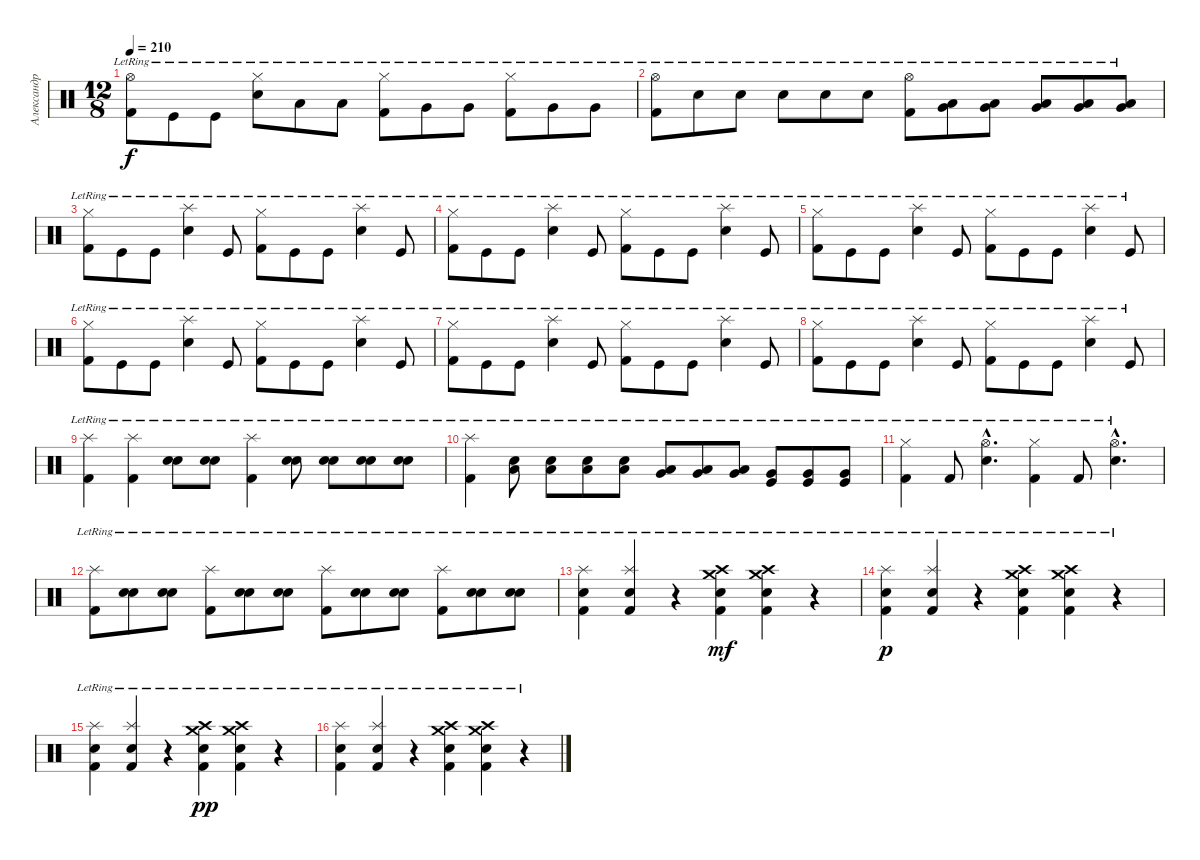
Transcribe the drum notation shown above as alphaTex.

\track ("Александр Манякин" "Александр ") {instrument percussion}
\staff {score}
\articulation defaults
\ts (12 8)
\tempo 210
\clef neutral
\ks c
("Hi-Hat (open)"{lr} "Kick (hit) 2"{lr}).8{dy f} "Kick (hit)"{lr}.8 "Kick (hit)"{lr}.8 ("Hi-Hat (closed)"{lr} "Snare (hit) 2"{lr}).8 "Low Floor Tom (hit)"{lr}.8 "Low Floor Tom (hit)"{lr}.8 ("Hi-Hat (closed)"{lr} "Kick (hit) 2"{lr}).8 "Very Low Tom (hit)"{lr}.8 "Very Low Tom (hit)"{lr}.8 ("Hi-Hat (closed)"{lr} "Kick (hit) 2"{lr}).8 "Very Low Tom (hit)"{lr}.8 "Very Low Tom (hit)"{lr}.8 |
("Hi-Hat (open)"{lr} "Kick (hit) 2"{lr}).8 "Snare (hit) 2"{lr}.8 "Snare (hit) 2"{lr}.8 "Snare (hit) 2"{lr}.8 "Snare (hit) 2"{lr}.8 "Snare (hit) 2"{lr}.8 ("Hi-Hat (open)"{lr} "Kick (hit) 2"{lr}).8 ("Low Tom (hit)"{lr} "Very Low Tom (hit)"{lr}).8 ("Low Tom (hit)"{lr} "Very Low Tom (hit)"{lr}).8 ("Low Tom (hit)"{lr} "Very Low Tom (hit)"{lr}).8 ("Low Tom (hit)"{lr} "Very Low Tom (hit)"{lr}).8 ("Low Floor Tom (hit)"{lr} "Very Low Tom (hit)"{lr}).8 |
("Hi-Hat (closed)"{lr} "Kick (hit) 2"{lr}).8 "Kick (hit)"{lr}.8 "Kick (hit)"{lr}.8 ("Splash (hit)"{lr} "Snare (hit) 2"{lr}).4 "Kick (hit)"{lr}.8 ("Hi-Hat (closed)"{lr} "Kick (hit) 2"{lr}).8 "Kick (hit)"{lr}.8 "Kick (hit)"{lr}.8 ("Splash (hit)"{lr} "Snare (hit) 2"{lr}).4 "Kick (hit)"{lr}.8 |
("Hi-Hat (closed)"{lr} "Kick (hit) 2"{lr}).8 "Kick (hit)"{lr}.8 "Kick (hit)"{lr}.8 ("Splash (hit)"{lr} "Snare (hit) 2"{lr}).4 "Kick (hit)"{lr}.8 ("Hi-Hat (closed)"{lr} "Kick (hit) 2"{lr}).8 "Kick (hit)"{lr}.8 "Kick (hit)"{lr}.8 ("Splash (hit)"{lr} "Snare (hit) 2"{lr}).4 "Kick (hit)"{lr}.8 |
("Hi-Hat (closed)"{lr} "Kick (hit) 2"{lr}).8 "Kick (hit)"{lr}.8 "Kick (hit)"{lr}.8 ("Splash (hit)"{lr} "Snare (hit) 2"{lr}).4 "Kick (hit)"{lr}.8 ("Hi-Hat (closed)"{lr} "Kick (hit) 2"{lr}).8 "Kick (hit)"{lr}.8 "Kick (hit)"{lr}.8 ("Splash (hit)"{lr} "Snare (hit) 2"{lr}).4 "Kick (hit)"{lr}.8 |
("Hi-Hat (closed)"{lr} "Kick (hit) 2"{lr}).8 "Kick (hit)"{lr}.8 "Kick (hit)"{lr}.8 ("Splash (hit)"{lr} "Snare (hit) 2"{lr}).4 "Kick (hit)"{lr}.8 ("Hi-Hat (closed)"{lr} "Kick (hit) 2"{lr}).8 "Kick (hit)"{lr}.8 "Kick (hit)"{lr}.8 ("Splash (hit)"{lr} "Snare (hit) 2"{lr}).4 "Kick (hit)"{lr}.8 |
("Hi-Hat (closed)"{lr} "Kick (hit) 2"{lr}).8 "Kick (hit)"{lr}.8 "Kick (hit)"{lr}.8 ("Splash (hit)"{lr} "Snare (hit) 2"{lr}).4 "Kick (hit)"{lr}.8 ("Hi-Hat (closed)"{lr} "Kick (hit) 2"{lr}).8 "Kick (hit)"{lr}.8 "Kick (hit)"{lr}.8 ("Splash (hit)"{lr} "Snare (hit) 2"{lr}).4 "Kick (hit)"{lr}.8 |
("Hi-Hat (closed)"{lr} "Kick (hit) 2"{lr}).8 "Kick (hit)"{lr}.8 "Kick (hit)"{lr}.8 ("Splash (hit)"{lr} "Snare (hit) 2"{lr}).4 "Kick (hit)"{lr}.8 ("Hi-Hat (closed)"{lr} "Kick (hit) 2"{lr}).8 "Kick (hit)"{lr}.8 "Kick (hit)"{lr}.8 ("Splash (hit)"{lr} "Snare (hit) 2"{lr}).4 "Kick (hit)"{lr}.8 |
("Splash (hit)"{lr} "Kick (hit) 2"{lr}).4 ("Splash (hit)"{lr} "Kick (hit) 2"{lr}).4 ("Snare (hit) 2"{lr} "Snare (hit) 2"{lr}).8 ("Electric Snare (hit)"{lr} "Snare (hit) 2"{lr}).8 ("Splash (hit)"{lr} "Kick (hit) 2"{lr}).4 ("Electric Snare (hit)"{lr} "Snare (hit) 2"{lr}).8 ("Electric Snare (hit)"{lr} "Snare (hit) 2"{lr}).8 ("Electric Snare (hit)"{lr} "Snare (hit) 2"{lr}).8 ("Electric Snare (hit)"{lr} "Snare (hit) 2"{lr}).8 |
("Splash (hit)"{lr} "Kick (hit) 2"{lr}).4 ("Low Tom (hit)"{lr} "Snare (hit) 2"{lr}).8 ("Low Tom (hit)"{lr} "Snare (hit) 2"{lr}).8 ("Low Tom (hit)"{lr} "Snare (hit) 2"{lr}).8 ("Low Tom (hit)"{lr} "Snare (hit) 2"{lr}).8 ("Low Floor Tom (hit)"{lr} "Very Low Tom (hit)"{lr}).8 ("Low Floor Tom (hit)"{lr} "Very Low Tom (hit)"{lr}).8 ("Low Floor Tom (hit)"{lr} "Very Low Tom (hit)"{lr}).8 ("Kick (hit)"{lr} "Very Low Tom (hit)"{lr}).8 ("Kick (hit)"{lr} "Very Low Tom (hit)"{lr}).8 ("Kick (hit)"{lr} "Very Low Tom (hit)"{lr}).8 |
("Hi-Hat (closed)"{lr} "Kick (hit) 2"{lr}).4 "Kick (hit) 2"{lr}.8 ("Hi-Hat (open)"{hac lr} "Snare (hit) 2"{hac lr}).4{d} ("Hi-Hat (closed)"{lr} "Kick (hit) 2"{lr}).4 "Kick (hit) 2"{lr}.8 ("Hi-Hat (open)"{hac lr} "Snare (hit) 2"{hac lr}).4{d} |
("Splash (hit)"{lr} "Kick (hit) 2"{lr}).8 ("Electric Snare (hit)"{lr} "Snare (hit) 2"{lr}).8 ("Electric Snare (hit)"{lr} "Snare (hit) 2"{lr}).8 ("Splash (hit)"{lr} "Kick (hit) 2"{lr}).8 ("Electric Snare (hit)"{lr} "Snare (hit) 2"{lr}).8 ("Electric Snare (hit)"{lr} "Snare (hit) 2"{lr}).8 ("Splash (hit)"{lr} "Kick (hit) 2"{lr}).8 ("Electric Snare (hit)"{lr} "Snare (hit) 2"{lr}).8 ("Electric Snare (hit)"{lr} "Snare (hit) 2"{lr}).8 ("Splash (hit)"{lr} "Kick (hit) 2"{lr}).8 ("Snare (hit) 2"{lr} "Electric Snare (hit)"{lr}).8 ("Snare (hit) 2"{lr} "Electric Snare (hit)"{lr}).8 |
("Splash (hit)"{lr} "Snare (hit) 2"{lr} "Kick (hit) 2"{lr}).4 ("Splash (hit)"{lr} "Electric Snare (hit)"{lr} "Kick (hit) 2"{lr}).4 r.4 ("Crash medium (hit)"{lr} "Crash high (hit)"{lr} "Snare (hit) 2"{lr} "Kick (hit) 2"{lr}).4{dy mf} ("Crash medium (hit)"{lr} "Crash high (hit)"{lr} "Snare (hit) 2"{lr} "Kick (hit) 2"{lr}).4 r.4 |
("Splash (hit)"{lr} "Snare (hit) 2"{lr} "Kick (hit) 2"{lr}).4{dy p} ("Splash (hit)"{lr} "Electric Snare (hit)"{lr} "Kick (hit) 2"{lr}).4 r.4 ("Crash medium (hit)"{lr} "Crash high (hit)"{lr} "Snare (hit) 2"{lr} "Kick (hit) 2"{lr}).4 ("Crash medium (hit)"{lr} "Crash high (hit)"{lr} "Snare (hit) 2"{lr} "Kick (hit) 2"{lr}).4 r.4 |
("Splash (hit)"{lr} "Snare (hit) 2"{lr} "Kick (hit) 2"{lr}).4 ("Splash (hit)"{lr} "Electric Snare (hit)"{lr} "Kick (hit) 2"{lr}).4 r.4 ("Crash medium (hit)"{lr} "Crash high (hit)"{lr} "Snare (hit) 2"{lr} "Kick (hit) 2"{lr}).4{dy pp} ("Crash medium (hit)"{lr} "Crash high (hit)"{lr} "Snare (hit) 2"{lr} "Kick (hit) 2"{lr}).4 r.4 |
("Splash (hit)"{lr} "Snare (hit) 2"{lr} "Kick (hit) 2"{lr}).4 ("Splash (hit)"{lr} "Electric Snare (hit)"{lr} "Kick (hit) 2"{lr}).4 r.4 ("Crash medium (hit)"{lr} "Crash high (hit)"{lr} "Snare (hit) 2"{lr} "Kick (hit) 2"{lr}).4 ("Crash medium (hit)"{lr} "Crash high (hit)"{lr} "Snare (hit) 2"{lr} "Kick (hit) 2"{lr}).4 r.4
